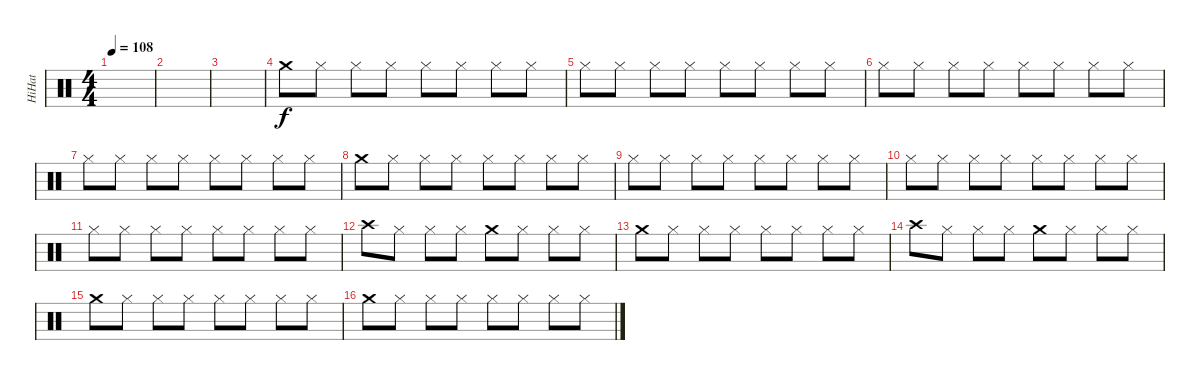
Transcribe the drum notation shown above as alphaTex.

\track ("HiHat" "HiHat") {instrument percussion}
\staff {score}
\articulation defaults
\ts (4 4)
\tempo 108
\clef neutral
\ks c
|
|
|
"Crash medium (hit)".8 "Hi-Hat (closed)".8 "Hi-Hat (closed)".8 "Hi-Hat (closed)".8 "Hi-Hat (closed)".8 "Hi-Hat (closed)".8 "Hi-Hat (closed)".8 "Hi-Hat (closed)".8 |
"Hi-Hat (closed)".8 "Hi-Hat (closed)".8 "Hi-Hat (closed)".8 "Hi-Hat (closed)".8 "Hi-Hat (closed)".8 "Hi-Hat (closed)".8 "Hi-Hat (closed)".8 "Hi-Hat (closed)".8 |
"Hi-Hat (closed)".8 "Hi-Hat (closed)".8 "Hi-Hat (closed)".8 "Hi-Hat (closed)".8 "Hi-Hat (closed)".8 "Hi-Hat (closed)".8 "Hi-Hat (closed)".8 "Hi-Hat (closed)".8 |
"Hi-Hat (closed)".8 "Hi-Hat (closed)".8 "Hi-Hat (closed)".8 "Hi-Hat (closed)".8 "Hi-Hat (closed)".8 "Hi-Hat (closed)".8 "Hi-Hat (closed)".8 "Hi-Hat (closed)".8 |
"Crash medium (hit)".8 "Hi-Hat (closed)".8 "Hi-Hat (closed)".8 "Hi-Hat (closed)".8 "Hi-Hat (closed)".8 "Hi-Hat (closed)".8 "Hi-Hat (closed)".8 "Hi-Hat (closed)".8 |
"Hi-Hat (closed)".8 "Hi-Hat (closed)".8 "Hi-Hat (closed)".8 "Hi-Hat (closed)".8 "Hi-Hat (closed)".8 "Hi-Hat (closed)".8 "Hi-Hat (closed)".8 "Hi-Hat (closed)".8 |
"Hi-Hat (closed)".8 "Hi-Hat (closed)".8 "Hi-Hat (closed)".8 "Hi-Hat (closed)".8 "Hi-Hat (closed)".8 "Hi-Hat (closed)".8 "Hi-Hat (closed)".8 "Hi-Hat (closed)".8 |
"Hi-Hat (closed)".8 "Hi-Hat (closed)".8 "Hi-Hat (closed)".8 "Hi-Hat (closed)".8 "Hi-Hat (closed)".8 "Hi-Hat (closed)".8 "Hi-Hat (closed)".8 "Hi-Hat (closed)".8 |
"Crash high (hit)".8 "Hi-Hat (closed)".8 "Hi-Hat (closed)".8 "Hi-Hat (closed)".8 "Crash medium (hit)".8 "Hi-Hat (closed)".8 "Hi-Hat (closed)".8 "Hi-Hat (closed)".8 |
"Crash medium (hit)".8 "Hi-Hat (closed)".8 "Hi-Hat (closed)".8 "Hi-Hat (closed)".8 "Hi-Hat (closed)".8 "Hi-Hat (closed)".8 "Hi-Hat (closed)".8 "Hi-Hat (closed)".8 |
"Crash high (hit)".8 "Hi-Hat (closed)".8 "Hi-Hat (closed)".8 "Hi-Hat (closed)".8 "Crash medium (hit)".8 "Hi-Hat (closed)".8 "Hi-Hat (closed)".8 "Hi-Hat (closed)".8 |
"Crash medium (hit)".8 "Hi-Hat (closed)".8 "Hi-Hat (closed)".8 "Hi-Hat (closed)".8 "Hi-Hat (closed)".8 "Hi-Hat (closed)".8 "Hi-Hat (closed)".8 "Hi-Hat (closed)".8 |
"Crash medium (hit)".8 "Hi-Hat (closed)".8 "Hi-Hat (closed)".8 "Hi-Hat (closed)".8 "Hi-Hat (closed)".8 "Hi-Hat (closed)".8 "Hi-Hat (closed)".8 "Hi-Hat (closed)".8
